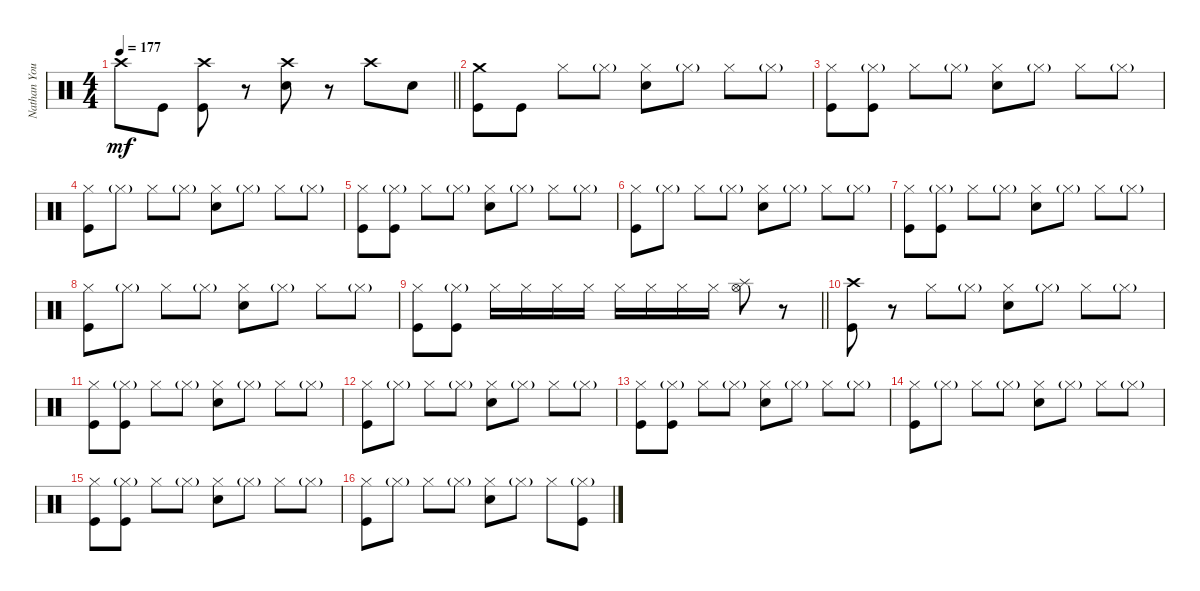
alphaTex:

\track ("Nathan Young" "Nathan You") {instrument percussion}
\staff {score}
\articulation defaults
\ts (4 4)
\tempo 177
\clef neutral
\barLineRight lightlight
\ks c "Crash high (hit)".8{dy mf} "Kick (hit)".8
("Crash high (hit)" "Kick (hit)").8 r.8 ("Crash high (hit)" "Snare (hit) 2").8 r.8 "Crash high (hit)".8 "Snare (hit) 2".8 |
("Crash medium (hit)" "Kick (hit)").8 "Kick (hit)".8 "Hi-Hat (closed)".8 "Hi-Hat (closed)"{g}.8 ("Hi-Hat (closed)" "Snare (hit) 2").8 "Hi-Hat (closed)"{g}.8 "Hi-Hat (closed)".8 "Hi-Hat (closed)"{g}.8 |
("Hi-Hat (closed)" "Kick (hit)").8 ("Hi-Hat (closed)"{g} "Kick (hit)").8 "Hi-Hat (closed)".8 "Hi-Hat (closed)"{g}.8 ("Hi-Hat (closed)" "Snare (hit) 2").8 "Hi-Hat (closed)"{g}.8 "Hi-Hat (closed)".8 "Hi-Hat (closed)"{g}.8 |
("Hi-Hat (closed)" "Kick (hit)").8 "Hi-Hat (closed)"{g}.8 "Hi-Hat (closed)".8 "Hi-Hat (closed)"{g}.8 ("Hi-Hat (closed)" "Snare (hit) 2").8 "Hi-Hat (closed)"{g}.8 "Hi-Hat (closed)".8 "Hi-Hat (closed)"{g}.8 |
("Hi-Hat (closed)" "Kick (hit)").8 ("Hi-Hat (closed)"{g} "Kick (hit)").8 "Hi-Hat (closed)".8 "Hi-Hat (closed)"{g}.8 ("Hi-Hat (closed)" "Snare (hit) 2").8 "Hi-Hat (closed)"{g}.8 "Hi-Hat (closed)".8 "Hi-Hat (closed)"{g}.8 |
("Hi-Hat (closed)" "Kick (hit)").8 "Hi-Hat (closed)"{g}.8 "Hi-Hat (closed)".8 "Hi-Hat (closed)"{g}.8 ("Hi-Hat (closed)" "Snare (hit) 2").8 "Hi-Hat (closed)"{g}.8 "Hi-Hat (closed)".8 "Hi-Hat (closed)"{g}.8 |
("Hi-Hat (closed)" "Kick (hit)").8 ("Hi-Hat (closed)"{g} "Kick (hit)").8 "Hi-Hat (closed)".8 "Hi-Hat (closed)"{g}.8 ("Hi-Hat (closed)" "Snare (hit) 2").8 "Hi-Hat (closed)"{g}.8 "Hi-Hat (closed)".8 "Hi-Hat (closed)"{g}.8 |
("Hi-Hat (closed)" "Kick (hit)").8 "Hi-Hat (closed)"{g}.8 "Hi-Hat (closed)".8 "Hi-Hat (closed)"{g}.8 ("Hi-Hat (closed)" "Snare (hit) 2").8 "Hi-Hat (closed)"{g}.8 "Hi-Hat (closed)".8 "Hi-Hat (closed)"{g}.8 |
\barLineRight lightlight
("Hi-Hat (closed)" "Kick (hit)").8 ("Hi-Hat (closed)"{g} "Kick (hit)").8 "Hi-Hat (closed)".16 "Hi-Hat (closed)".16 "Hi-Hat (closed)".16 "Hi-Hat (closed)".16 "Hi-Hat (closed)".16 "Hi-Hat (closed)".16 "Hi-Hat (closed)".16 "Hi-Hat (closed)".16 ("Hi-Hat (open)" "Splash (hit)").8 r.8 |
("Crash high (hit)" "Kick (hit)").8 r.8 "Hi-Hat (closed)".8 "Hi-Hat (closed)"{g}.8 ("Hi-Hat (closed)" "Snare (hit) 2").8 "Hi-Hat (closed)"{g}.8 "Hi-Hat (closed)".8 "Hi-Hat (closed)"{g}.8 |
("Hi-Hat (closed)" "Kick (hit)").8 ("Hi-Hat (closed)"{g} "Kick (hit)").8 "Hi-Hat (closed)".8 "Hi-Hat (closed)"{g}.8 ("Hi-Hat (closed)" "Snare (hit) 2").8 "Hi-Hat (closed)"{g}.8 "Hi-Hat (closed)".8 "Hi-Hat (closed)"{g}.8 |
("Hi-Hat (closed)" "Kick (hit)").8 "Hi-Hat (closed)"{g}.8 "Hi-Hat (closed)".8 "Hi-Hat (closed)"{g}.8 ("Hi-Hat (closed)" "Snare (hit) 2").8 "Hi-Hat (closed)"{g}.8 "Hi-Hat (closed)".8 "Hi-Hat (closed)"{g}.8 |
("Hi-Hat (closed)" "Kick (hit)").8 ("Hi-Hat (closed)"{g} "Kick (hit)").8 "Hi-Hat (closed)".8 "Hi-Hat (closed)"{g}.8 ("Hi-Hat (closed)" "Snare (hit) 2").8 "Hi-Hat (closed)"{g}.8 "Hi-Hat (closed)".8 "Hi-Hat (closed)"{g}.8 |
("Hi-Hat (closed)" "Kick (hit)").8 "Hi-Hat (closed)"{g}.8 "Hi-Hat (closed)".8 "Hi-Hat (closed)"{g}.8 ("Hi-Hat (closed)" "Snare (hit) 2").8 "Hi-Hat (closed)"{g}.8 "Hi-Hat (closed)".8 "Hi-Hat (closed)"{g}.8 |
("Hi-Hat (closed)" "Kick (hit)").8 ("Hi-Hat (closed)"{g} "Kick (hit)").8 "Hi-Hat (closed)".8 "Hi-Hat (closed)"{g}.8 ("Hi-Hat (closed)" "Snare (hit) 2").8 "Hi-Hat (closed)"{g}.8 "Hi-Hat (closed)".8 "Hi-Hat (closed)"{g}.8 |
("Hi-Hat (closed)" "Kick (hit)").8 "Hi-Hat (closed)"{g}.8 "Hi-Hat (closed)".8 "Hi-Hat (closed)"{g}.8 ("Hi-Hat (closed)" "Snare (hit) 2").8 "Hi-Hat (closed)"{g}.8 "Hi-Hat (closed)".8 ("Hi-Hat (closed)"{g} "Kick (hit)").8
